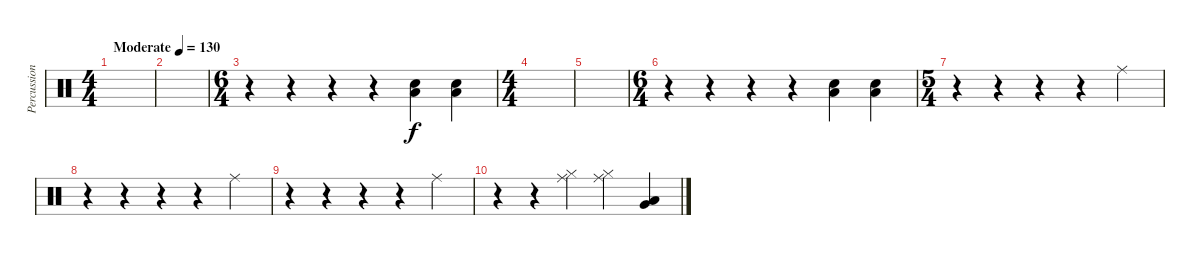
\track ("Percussion" "Percussion") {instrument percussion}
\staff {score}
\articulation defaults
\ts (4 4)
\tempo (130 "Moderate")
\clef neutral
\ks c
|
|
\ts (6 4)
r.4 r.4 r.4 r.4 ("Low Tom (hit)" "Electric Snare (hit)").4 ("Low Tom (hit)" "Electric Snare (hit)").4 |
\ts (4 4)
|
|
\ts (6 4)
r.4 r.4 r.4 r.4 ("Low Tom (hit)" "Electric Snare (hit)").4 ("Low Tom (hit)" "Electric Snare (hit)").4 |
\ts (5 4)
r.4 r.4 r.4 r.4 "Ride (middle)".4 |
r.4 r.4 r.4 r.4 "Ride (middle)".4 |
r.4 r.4 r.4 r.4 "Ride (middle)".4 |
r.4 r.4 ("Ride (middle)" "Hi-Hat (closed)").4 ("Ride (middle)" "Hi-Hat (closed)").4 ("Very Low Tom (hit)" "Low Floor Tom (hit)").4
